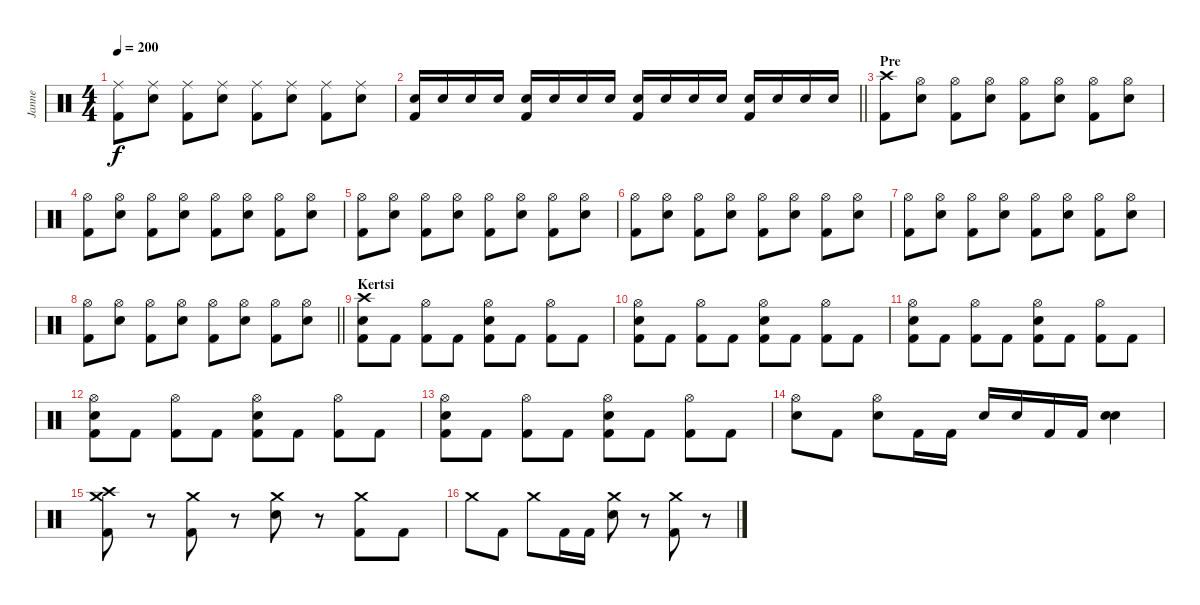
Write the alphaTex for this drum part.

\track ("Janne" "Janne") {instrument percussion}
\staff {score}
\articulation defaults
\ts (4 4)
\tempo 200
\clef neutral
\ks c
("Ride (middle)" "Kick (hit) 2").8{dy f} ("Ride (middle)" "Electric Snare (hit)").8 ("Ride (middle)" "Kick (hit) 2").8 ("Ride (middle)" "Electric Snare (hit)").8 ("Ride (middle)" "Kick (hit) 2").8 ("Ride (middle)" "Electric Snare (hit)").8 ("Ride (middle)" "Kick (hit) 2").8 ("Ride (middle)" "Electric Snare (hit)").8 |
\barLineRight lightlight
("Electric Snare (hit)" "Kick (hit) 2").16 "Electric Snare (hit)".16 "Electric Snare (hit)".16 "Electric Snare (hit)".16 ("Electric Snare (hit)" "Kick (hit) 2").16 "Electric Snare (hit)".16 "Electric Snare (hit)".16 "Electric Snare (hit)".16 ("Electric Snare (hit)" "Kick (hit) 2").16 "Electric Snare (hit)".16 "Electric Snare (hit)".16 "Electric Snare (hit)".16 ("Electric Snare (hit)" "Kick (hit) 2").16 "Electric Snare (hit)".16 "Electric Snare (hit)".16 "Electric Snare (hit)".16 |
\section ("" "Pre")
("Crash high (hit)" "Kick (hit) 2").8 ("Hi-Hat (open)" "Electric Snare (hit)").8 ("Hi-Hat (open)" "Kick (hit) 2").8 ("Hi-Hat (open)" "Electric Snare (hit)").8 ("Hi-Hat (open)" "Kick (hit) 2").8 ("Hi-Hat (open)" "Electric Snare (hit)").8 ("Hi-Hat (open)" "Kick (hit) 2").8 ("Hi-Hat (open)" "Electric Snare (hit)").8 |
("Hi-Hat (open)" "Kick (hit) 2").8 ("Hi-Hat (open)" "Electric Snare (hit)").8 ("Hi-Hat (open)" "Kick (hit) 2").8 ("Hi-Hat (open)" "Electric Snare (hit)").8 ("Hi-Hat (open)" "Kick (hit) 2").8 ("Hi-Hat (open)" "Electric Snare (hit)").8 ("Hi-Hat (open)" "Kick (hit) 2").8 ("Hi-Hat (open)" "Electric Snare (hit)").8 |
("Hi-Hat (open)" "Kick (hit) 2").8 ("Hi-Hat (open)" "Electric Snare (hit)").8 ("Hi-Hat (open)" "Kick (hit) 2").8 ("Hi-Hat (open)" "Electric Snare (hit)").8 ("Hi-Hat (open)" "Kick (hit) 2").8 ("Hi-Hat (open)" "Electric Snare (hit)").8 ("Hi-Hat (open)" "Kick (hit) 2").8 ("Hi-Hat (open)" "Electric Snare (hit)").8 |
("Hi-Hat (open)" "Kick (hit) 2").8 ("Hi-Hat (open)" "Electric Snare (hit)").8 ("Hi-Hat (open)" "Kick (hit) 2").8 ("Hi-Hat (open)" "Electric Snare (hit)").8 ("Hi-Hat (open)" "Kick (hit) 2").8 ("Hi-Hat (open)" "Electric Snare (hit)").8 ("Hi-Hat (open)" "Kick (hit) 2").8 ("Hi-Hat (open)" "Electric Snare (hit)").8 |
("Hi-Hat (open)" "Kick (hit) 2").8 ("Hi-Hat (open)" "Electric Snare (hit)").8 ("Hi-Hat (open)" "Kick (hit) 2").8 ("Hi-Hat (open)" "Electric Snare (hit)").8 ("Hi-Hat (open)" "Kick (hit) 2").8 ("Hi-Hat (open)" "Electric Snare (hit)").8 ("Hi-Hat (open)" "Kick (hit) 2").8 ("Hi-Hat (open)" "Electric Snare (hit)").8 |
\barLineRight lightlight
("Hi-Hat (open)" "Kick (hit) 2").8 ("Hi-Hat (open)" "Electric Snare (hit)").8 ("Hi-Hat (open)" "Kick (hit) 2").8 ("Hi-Hat (open)" "Electric Snare (hit)").8 ("Hi-Hat (open)" "Kick (hit) 2").8 ("Hi-Hat (open)" "Electric Snare (hit)").8 ("Hi-Hat (open)" "Kick (hit) 2").8 ("Hi-Hat (open)" "Electric Snare (hit)").8 |
\section ("" "Kertsi")
("Crash high (hit)" "Electric Snare (hit)" "Kick (hit) 2").8 "Kick (hit) 2".8 ("Hi-Hat (open)" "Kick (hit) 2").8 "Kick (hit) 2".8 ("Hi-Hat (open)" "Electric Snare (hit)" "Kick (hit) 2").8 "Kick (hit) 2".8 ("Hi-Hat (open)" "Kick (hit) 2").8 "Kick (hit) 2".8 |
("Hi-Hat (open)" "Electric Snare (hit)" "Kick (hit) 2").8 "Kick (hit) 2".8 ("Hi-Hat (open)" "Kick (hit) 2").8 "Kick (hit) 2".8 ("Hi-Hat (open)" "Electric Snare (hit)" "Kick (hit) 2").8 "Kick (hit) 2".8 ("Hi-Hat (open)" "Kick (hit) 2").8 "Kick (hit) 2".8 |
("Hi-Hat (open)" "Electric Snare (hit)" "Kick (hit) 2").8 "Kick (hit) 2".8 ("Hi-Hat (open)" "Kick (hit) 2").8 "Kick (hit) 2".8 ("Hi-Hat (open)" "Electric Snare (hit)" "Kick (hit) 2").8 "Kick (hit) 2".8 ("Hi-Hat (open)" "Kick (hit) 2").8 "Kick (hit) 2".8 |
("Hi-Hat (open)" "Electric Snare (hit)" "Kick (hit) 2").8 "Kick (hit) 2".8 ("Hi-Hat (open)" "Kick (hit) 2").8 "Kick (hit) 2".8 ("Hi-Hat (open)" "Electric Snare (hit)" "Kick (hit) 2").8 "Kick (hit) 2".8 ("Hi-Hat (open)" "Kick (hit) 2").8 "Kick (hit) 2".8 |
("Hi-Hat (open)" "Electric Snare (hit)" "Kick (hit) 2").8 "Kick (hit) 2".8 ("Hi-Hat (open)" "Kick (hit) 2").8 "Kick (hit) 2".8 ("Hi-Hat (open)" "Electric Snare (hit)" "Kick (hit) 2").8 "Kick (hit) 2".8 ("Hi-Hat (open)" "Kick (hit) 2").8 "Kick (hit) 2".8 |
("Hi-Hat (open)" "Electric Snare (hit)").8 "Kick (hit) 2".8 ("Hi-Hat (open)" "Electric Snare (hit)").8 "Kick (hit) 2".16 "Kick (hit) 2".16 "Electric Snare (hit)".16 "Electric Snare (hit)".16 "Kick (hit) 2".16 "Kick (hit) 2".16 ("Electric Snare (hit)" "Electric Snare (hit)").4 |
("Crash high (hit)" "Crash medium (hit)" "Kick (hit) 2").8 r.8 ("Crash medium (hit)" "Kick (hit) 2").8 r.8 ("Crash medium (hit)" "Electric Snare (hit)").8 r.8 ("Crash medium (hit)" "Kick (hit) 2").8 "Kick (hit) 2".8 |
"Crash medium (hit)".8 "Kick (hit) 2".8 "Crash medium (hit)".8 "Kick (hit) 2".16 "Kick (hit) 2".16 ("Crash medium (hit)" "Electric Snare (hit)").8 r.8 ("Crash medium (hit)" "Kick (hit) 2").8 r.8
